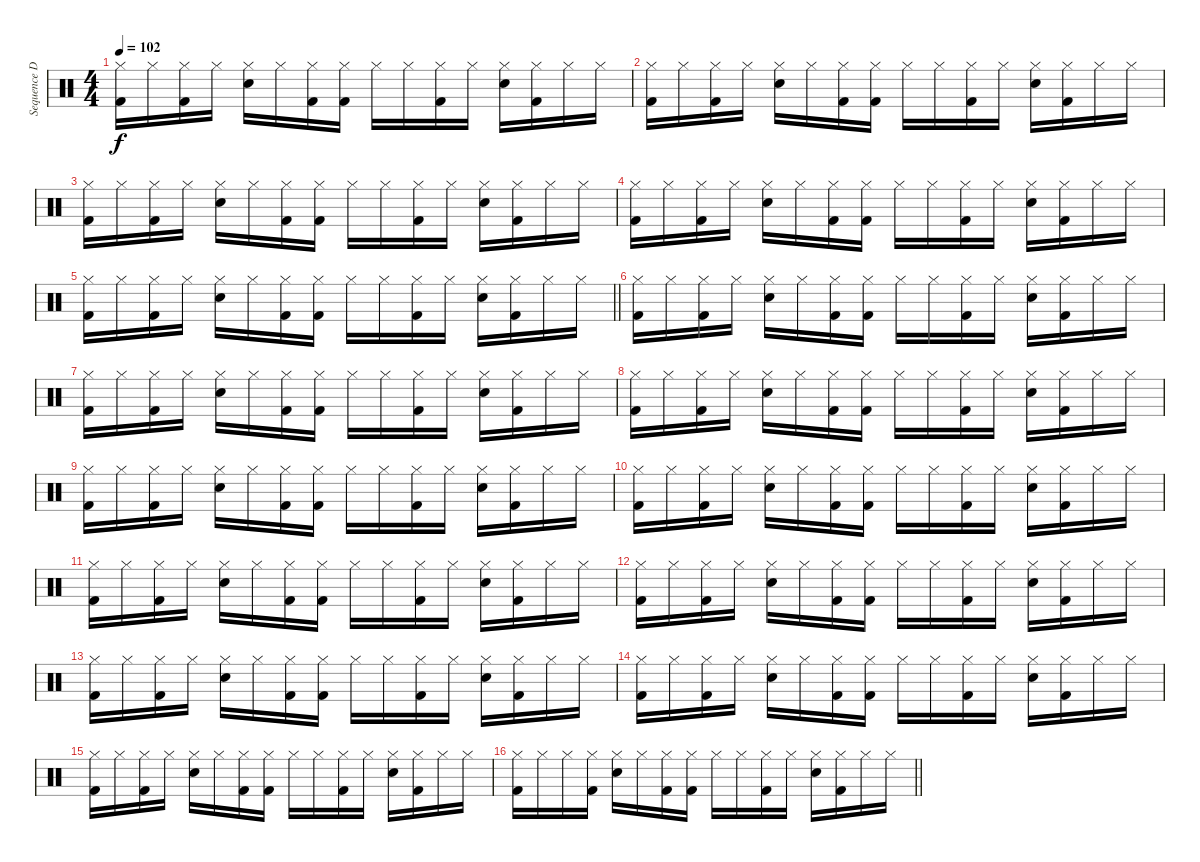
\track ("Sequence Drums" "Sequence D") {instrument percussion}
\staff {score}
\articulation defaults
\ts (4 4)
\tempo 102
\clef neutral
\ks c
("Hi-Hat (closed)" "Kick (hit) 2").16{dy f} "Hi-Hat (closed)".16 ("Hi-Hat (closed)" "Kick (hit) 2").16 "Hi-Hat (closed)".16 ("Hi-Hat (closed)" "Electric Snare (hit)").16 "Hi-Hat (closed)".16 ("Hi-Hat (closed)" "Kick (hit) 2").16 ("Hi-Hat (closed)" "Kick (hit) 2").16 "Hi-Hat (closed)".16 "Hi-Hat (closed)".16 ("Hi-Hat (closed)" "Kick (hit) 2").16 "Hi-Hat (closed)".16 ("Hi-Hat (closed)" "Electric Snare (hit)").16 ("Hi-Hat (closed)" "Kick (hit) 2").16 "Hi-Hat (closed)".16 "Hi-Hat (closed)".16 |
("Hi-Hat (closed)" "Kick (hit) 2").16 "Hi-Hat (closed)".16 ("Hi-Hat (closed)" "Kick (hit) 2").16 "Hi-Hat (closed)".16 ("Hi-Hat (closed)" "Electric Snare (hit)").16 "Hi-Hat (closed)".16 ("Hi-Hat (closed)" "Kick (hit) 2").16 ("Hi-Hat (closed)" "Kick (hit) 2").16 "Hi-Hat (closed)".16 "Hi-Hat (closed)".16 ("Hi-Hat (closed)" "Kick (hit) 2").16 "Hi-Hat (closed)".16 ("Hi-Hat (closed)" "Electric Snare (hit)").16 ("Hi-Hat (closed)" "Kick (hit) 2").16 "Hi-Hat (closed)".16 "Hi-Hat (closed)".16 |
("Hi-Hat (closed)" "Kick (hit) 2").16 "Hi-Hat (closed)".16 ("Hi-Hat (closed)" "Kick (hit) 2").16 "Hi-Hat (closed)".16 ("Hi-Hat (closed)" "Electric Snare (hit)").16 "Hi-Hat (closed)".16 ("Hi-Hat (closed)" "Kick (hit) 2").16 ("Hi-Hat (closed)" "Kick (hit) 2").16 "Hi-Hat (closed)".16 "Hi-Hat (closed)".16 ("Hi-Hat (closed)" "Kick (hit) 2").16 "Hi-Hat (closed)".16 ("Hi-Hat (closed)" "Electric Snare (hit)").16 ("Hi-Hat (closed)" "Kick (hit) 2").16 "Hi-Hat (closed)".16 "Hi-Hat (closed)".16 |
("Hi-Hat (closed)" "Kick (hit) 2").16 "Hi-Hat (closed)".16 ("Hi-Hat (closed)" "Kick (hit) 2").16 "Hi-Hat (closed)".16 ("Hi-Hat (closed)" "Electric Snare (hit)").16 "Hi-Hat (closed)".16 ("Hi-Hat (closed)" "Kick (hit) 2").16 ("Hi-Hat (closed)" "Kick (hit) 2").16 "Hi-Hat (closed)".16 "Hi-Hat (closed)".16 ("Hi-Hat (closed)" "Kick (hit) 2").16 "Hi-Hat (closed)".16 ("Hi-Hat (closed)" "Electric Snare (hit)").16 ("Hi-Hat (closed)" "Kick (hit) 2").16 "Hi-Hat (closed)".16 "Hi-Hat (closed)".16 |
\barLineRight lightlight
("Hi-Hat (closed)" "Kick (hit) 2").16 "Hi-Hat (closed)".16 ("Hi-Hat (closed)" "Kick (hit) 2").16 "Hi-Hat (closed)".16 ("Hi-Hat (closed)" "Electric Snare (hit)").16 "Hi-Hat (closed)".16 ("Hi-Hat (closed)" "Kick (hit) 2").16 ("Hi-Hat (closed)" "Kick (hit) 2").16 "Hi-Hat (closed)".16 "Hi-Hat (closed)".16 ("Hi-Hat (closed)" "Kick (hit) 2").16 "Hi-Hat (closed)".16 ("Hi-Hat (closed)" "Electric Snare (hit)").16 ("Hi-Hat (closed)" "Kick (hit) 2").16 "Hi-Hat (closed)".16 "Hi-Hat (closed)".16 |
("Hi-Hat (closed)" "Kick (hit) 2").16 "Hi-Hat (closed)".16 ("Hi-Hat (closed)" "Kick (hit) 2").16 "Hi-Hat (closed)".16 ("Hi-Hat (closed)" "Electric Snare (hit)").16 "Hi-Hat (closed)".16 ("Hi-Hat (closed)" "Kick (hit) 2").16 ("Hi-Hat (closed)" "Kick (hit) 2").16 "Hi-Hat (closed)".16 "Hi-Hat (closed)".16 ("Hi-Hat (closed)" "Kick (hit) 2").16 "Hi-Hat (closed)".16 ("Hi-Hat (closed)" "Electric Snare (hit)").16 ("Hi-Hat (closed)" "Kick (hit) 2").16 "Hi-Hat (closed)".16 "Hi-Hat (closed)".16 |
("Hi-Hat (closed)" "Kick (hit) 2").16 "Hi-Hat (closed)".16 ("Hi-Hat (closed)" "Kick (hit) 2").16 "Hi-Hat (closed)".16 ("Hi-Hat (closed)" "Electric Snare (hit)").16 "Hi-Hat (closed)".16 ("Hi-Hat (closed)" "Kick (hit) 2").16 ("Hi-Hat (closed)" "Kick (hit) 2").16 "Hi-Hat (closed)".16 "Hi-Hat (closed)".16 ("Hi-Hat (closed)" "Kick (hit) 2").16 "Hi-Hat (closed)".16 ("Hi-Hat (closed)" "Electric Snare (hit)").16 ("Hi-Hat (closed)" "Kick (hit) 2").16 "Hi-Hat (closed)".16 "Hi-Hat (closed)".16 |
("Hi-Hat (closed)" "Kick (hit) 2").16 "Hi-Hat (closed)".16 ("Hi-Hat (closed)" "Kick (hit) 2").16 "Hi-Hat (closed)".16 ("Hi-Hat (closed)" "Electric Snare (hit)").16 "Hi-Hat (closed)".16 ("Hi-Hat (closed)" "Kick (hit) 2").16 ("Hi-Hat (closed)" "Kick (hit) 2").16 "Hi-Hat (closed)".16 "Hi-Hat (closed)".16 ("Hi-Hat (closed)" "Kick (hit) 2").16 "Hi-Hat (closed)".16 ("Hi-Hat (closed)" "Electric Snare (hit)").16 ("Hi-Hat (closed)" "Kick (hit) 2").16 "Hi-Hat (closed)".16 "Hi-Hat (closed)".16 |
("Hi-Hat (closed)" "Kick (hit) 2").16 "Hi-Hat (closed)".16 ("Hi-Hat (closed)" "Kick (hit) 2").16 "Hi-Hat (closed)".16 ("Hi-Hat (closed)" "Electric Snare (hit)").16 "Hi-Hat (closed)".16 ("Hi-Hat (closed)" "Kick (hit) 2").16 ("Hi-Hat (closed)" "Kick (hit) 2").16 "Hi-Hat (closed)".16 "Hi-Hat (closed)".16 ("Hi-Hat (closed)" "Kick (hit) 2").16 "Hi-Hat (closed)".16 ("Hi-Hat (closed)" "Electric Snare (hit)").16 ("Hi-Hat (closed)" "Kick (hit) 2").16 "Hi-Hat (closed)".16 "Hi-Hat (closed)".16 |
("Hi-Hat (closed)" "Kick (hit) 2").16 "Hi-Hat (closed)".16 ("Hi-Hat (closed)" "Kick (hit) 2").16 "Hi-Hat (closed)".16 ("Hi-Hat (closed)" "Electric Snare (hit)").16 "Hi-Hat (closed)".16 ("Hi-Hat (closed)" "Kick (hit) 2").16 ("Hi-Hat (closed)" "Kick (hit) 2").16 "Hi-Hat (closed)".16 "Hi-Hat (closed)".16 ("Hi-Hat (closed)" "Kick (hit) 2").16 "Hi-Hat (closed)".16 ("Hi-Hat (closed)" "Electric Snare (hit)").16 ("Hi-Hat (closed)" "Kick (hit) 2").16 "Hi-Hat (closed)".16 "Hi-Hat (closed)".16 |
("Hi-Hat (closed)" "Kick (hit) 2").16 "Hi-Hat (closed)".16 ("Hi-Hat (closed)" "Kick (hit) 2").16 "Hi-Hat (closed)".16 ("Hi-Hat (closed)" "Electric Snare (hit)").16 "Hi-Hat (closed)".16 ("Hi-Hat (closed)" "Kick (hit) 2").16 ("Hi-Hat (closed)" "Kick (hit) 2").16 "Hi-Hat (closed)".16 "Hi-Hat (closed)".16 ("Hi-Hat (closed)" "Kick (hit) 2").16 "Hi-Hat (closed)".16 ("Hi-Hat (closed)" "Electric Snare (hit)").16 ("Hi-Hat (closed)" "Kick (hit) 2").16 "Hi-Hat (closed)".16 "Hi-Hat (closed)".16 |
("Hi-Hat (closed)" "Kick (hit) 2").16 "Hi-Hat (closed)".16 ("Hi-Hat (closed)" "Kick (hit) 2").16 "Hi-Hat (closed)".16 ("Hi-Hat (closed)" "Electric Snare (hit)").16 "Hi-Hat (closed)".16 ("Hi-Hat (closed)" "Kick (hit) 2").16 ("Hi-Hat (closed)" "Kick (hit) 2").16 "Hi-Hat (closed)".16 "Hi-Hat (closed)".16 ("Hi-Hat (closed)" "Kick (hit) 2").16 "Hi-Hat (closed)".16 ("Hi-Hat (closed)" "Electric Snare (hit)").16 ("Hi-Hat (closed)" "Kick (hit) 2").16 "Hi-Hat (closed)".16 "Hi-Hat (closed)".16 |
("Hi-Hat (closed)" "Kick (hit) 2").16 "Hi-Hat (closed)".16 ("Hi-Hat (closed)" "Kick (hit) 2").16 "Hi-Hat (closed)".16 ("Hi-Hat (closed)" "Electric Snare (hit)").16 "Hi-Hat (closed)".16 ("Hi-Hat (closed)" "Kick (hit) 2").16 ("Hi-Hat (closed)" "Kick (hit) 2").16 "Hi-Hat (closed)".16 "Hi-Hat (closed)".16 ("Hi-Hat (closed)" "Kick (hit) 2").16 "Hi-Hat (closed)".16 ("Hi-Hat (closed)" "Electric Snare (hit)").16 ("Hi-Hat (closed)" "Kick (hit) 2").16 "Hi-Hat (closed)".16 "Hi-Hat (closed)".16 |
("Hi-Hat (closed)" "Kick (hit) 2").16 "Hi-Hat (closed)".16 ("Hi-Hat (closed)" "Kick (hit) 2").16 "Hi-Hat (closed)".16 ("Hi-Hat (closed)" "Electric Snare (hit)").16 "Hi-Hat (closed)".16 ("Hi-Hat (closed)" "Kick (hit) 2").16 ("Hi-Hat (closed)" "Kick (hit) 2").16 "Hi-Hat (closed)".16 "Hi-Hat (closed)".16 ("Hi-Hat (closed)" "Kick (hit) 2").16 "Hi-Hat (closed)".16 ("Hi-Hat (closed)" "Electric Snare (hit)").16 ("Hi-Hat (closed)" "Kick (hit) 2").16 "Hi-Hat (closed)".16 "Hi-Hat (closed)".16 |
("Hi-Hat (closed)" "Kick (hit) 2").16 "Hi-Hat (closed)".16 ("Hi-Hat (closed)" "Kick (hit) 2").16 "Hi-Hat (closed)".16 ("Hi-Hat (closed)" "Electric Snare (hit)").16 "Hi-Hat (closed)".16 ("Hi-Hat (closed)" "Kick (hit) 2").16 ("Hi-Hat (closed)" "Kick (hit) 2").16 "Hi-Hat (closed)".16 "Hi-Hat (closed)".16 ("Hi-Hat (closed)" "Kick (hit) 2").16 "Hi-Hat (closed)".16 ("Hi-Hat (closed)" "Electric Snare (hit)").16 ("Hi-Hat (closed)" "Kick (hit) 2").16 "Hi-Hat (closed)".16 "Hi-Hat (closed)".16 |
\barLineRight lightlight
("Hi-Hat (closed)" "Kick (hit) 2").16 "Hi-Hat (closed)".16 "Hi-Hat (closed)".16 ("Hi-Hat (closed)" "Kick (hit) 2").16 ("Hi-Hat (closed)" "Electric Snare (hit)").16 "Hi-Hat (closed)".16 ("Hi-Hat (closed)" "Kick (hit) 2").16 ("Hi-Hat (closed)" "Kick (hit) 2").16 "Hi-Hat (closed)".16 "Hi-Hat (closed)".16 ("Hi-Hat (closed)" "Kick (hit) 2").16 "Hi-Hat (closed)".16 ("Hi-Hat (closed)" "Electric Snare (hit)").16 ("Hi-Hat (closed)" "Kick (hit) 2").16 "Hi-Hat (closed)".16 "Hi-Hat (closed)".16
